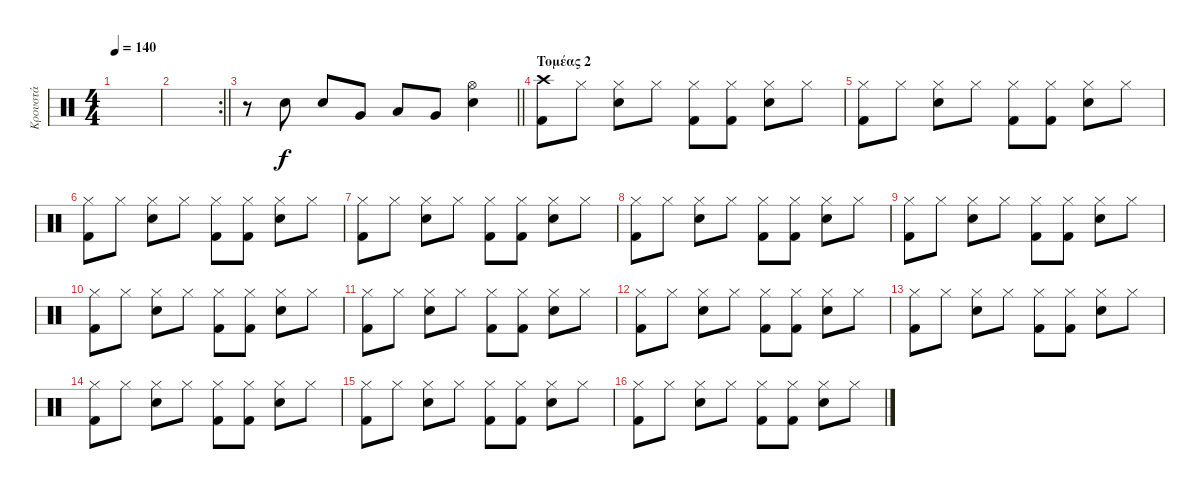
\track ("Κρουστά" "Κρουστά") {instrument percussion}
\staff {score}
\articulation defaults
\ts (4 4)
\tempo 140
\clef neutral
\ks c
|
\rc 2
\barLineRight lightlight
|
\barLineRight lightlight
r.8 "Electric Snare (hit)".8 "Electric Snare (hit)".8 "Very Low Tom (hit)".8 "Low Tom (hit)".8 "Very Low Tom (hit)".8 ("Hi-Hat (open)" "Electric Snare (hit)").4 |
\section ("" "Τομέας 2")
("Crash high (hit)" "Kick (hit) 2").8 "Hi-Hat (closed)".8 ("Hi-Hat (closed)" "Electric Snare (hit)").8 "Hi-Hat (closed)".8 ("Hi-Hat (closed)" "Kick (hit) 2").8 ("Hi-Hat (closed)" "Kick (hit) 2").8 ("Hi-Hat (closed)" "Electric Snare (hit)").8 "Hi-Hat (closed)".8 |
("Hi-Hat (closed)" "Kick (hit) 2").8 "Hi-Hat (closed)".8 ("Hi-Hat (closed)" "Electric Snare (hit)").8 "Hi-Hat (closed)".8 ("Hi-Hat (closed)" "Kick (hit) 2").8 ("Hi-Hat (closed)" "Kick (hit) 2").8 ("Hi-Hat (closed)" "Electric Snare (hit)").8 "Hi-Hat (closed)".8 |
("Hi-Hat (closed)" "Kick (hit) 2").8 "Hi-Hat (closed)".8 ("Hi-Hat (closed)" "Electric Snare (hit)").8 "Hi-Hat (closed)".8 ("Hi-Hat (closed)" "Kick (hit) 2").8 ("Hi-Hat (closed)" "Kick (hit) 2").8 ("Hi-Hat (closed)" "Electric Snare (hit)").8 "Hi-Hat (closed)".8 |
("Hi-Hat (closed)" "Kick (hit) 2").8 "Hi-Hat (closed)".8 ("Hi-Hat (closed)" "Electric Snare (hit)").8 "Hi-Hat (closed)".8 ("Hi-Hat (closed)" "Kick (hit) 2").8 ("Hi-Hat (closed)" "Kick (hit) 2").8 ("Hi-Hat (closed)" "Electric Snare (hit)").8 "Hi-Hat (closed)".8 |
("Hi-Hat (closed)" "Kick (hit) 2").8 "Hi-Hat (closed)".8 ("Hi-Hat (closed)" "Electric Snare (hit)").8 "Hi-Hat (closed)".8 ("Hi-Hat (closed)" "Kick (hit) 2").8 ("Hi-Hat (closed)" "Kick (hit) 2").8 ("Hi-Hat (closed)" "Electric Snare (hit)").8 "Hi-Hat (closed)".8 |
("Hi-Hat (closed)" "Kick (hit) 2").8 "Hi-Hat (closed)".8 ("Hi-Hat (closed)" "Electric Snare (hit)").8 "Hi-Hat (closed)".8 ("Hi-Hat (closed)" "Kick (hit) 2").8 ("Hi-Hat (closed)" "Kick (hit) 2").8 ("Hi-Hat (closed)" "Electric Snare (hit)").8 "Hi-Hat (closed)".8 |
("Hi-Hat (closed)" "Kick (hit) 2").8 "Hi-Hat (closed)".8 ("Hi-Hat (closed)" "Electric Snare (hit)").8 "Hi-Hat (closed)".8 ("Hi-Hat (closed)" "Kick (hit) 2").8 ("Hi-Hat (closed)" "Kick (hit) 2").8 ("Hi-Hat (closed)" "Electric Snare (hit)").8 "Hi-Hat (closed)".8 |
("Hi-Hat (closed)" "Kick (hit) 2").8 "Hi-Hat (closed)".8 ("Hi-Hat (closed)" "Electric Snare (hit)").8 "Hi-Hat (closed)".8 ("Hi-Hat (closed)" "Kick (hit) 2").8 ("Hi-Hat (closed)" "Kick (hit) 2").8 ("Hi-Hat (closed)" "Electric Snare (hit)").8 "Hi-Hat (closed)".8 |
("Hi-Hat (closed)" "Kick (hit) 2").8 "Hi-Hat (closed)".8 ("Hi-Hat (closed)" "Electric Snare (hit)").8 "Hi-Hat (closed)".8 ("Hi-Hat (closed)" "Kick (hit) 2").8 ("Hi-Hat (closed)" "Kick (hit) 2").8 ("Hi-Hat (closed)" "Electric Snare (hit)").8 "Hi-Hat (closed)".8 |
("Hi-Hat (closed)" "Kick (hit) 2").8 "Hi-Hat (closed)".8 ("Hi-Hat (closed)" "Electric Snare (hit)").8 "Hi-Hat (closed)".8 ("Hi-Hat (closed)" "Kick (hit) 2").8 ("Hi-Hat (closed)" "Kick (hit) 2").8 ("Hi-Hat (closed)" "Electric Snare (hit)").8 "Hi-Hat (closed)".8 |
("Hi-Hat (closed)" "Kick (hit) 2").8 "Hi-Hat (closed)".8 ("Hi-Hat (closed)" "Electric Snare (hit)").8 "Hi-Hat (closed)".8 ("Hi-Hat (closed)" "Kick (hit) 2").8 ("Hi-Hat (closed)" "Kick (hit) 2").8 ("Hi-Hat (closed)" "Electric Snare (hit)").8 "Hi-Hat (closed)".8 |
("Hi-Hat (closed)" "Kick (hit) 2").8 "Hi-Hat (closed)".8 ("Hi-Hat (closed)" "Electric Snare (hit)").8 "Hi-Hat (closed)".8 ("Hi-Hat (closed)" "Kick (hit) 2").8 ("Hi-Hat (closed)" "Kick (hit) 2").8 ("Hi-Hat (closed)" "Electric Snare (hit)").8 "Hi-Hat (closed)".8 |
("Hi-Hat (closed)" "Kick (hit) 2").8 "Hi-Hat (closed)".8 ("Hi-Hat (closed)" "Electric Snare (hit)").8 "Hi-Hat (closed)".8 ("Hi-Hat (closed)" "Kick (hit) 2").8 ("Hi-Hat (closed)" "Kick (hit) 2").8 ("Hi-Hat (closed)" "Electric Snare (hit)").8 "Hi-Hat (closed)".8
